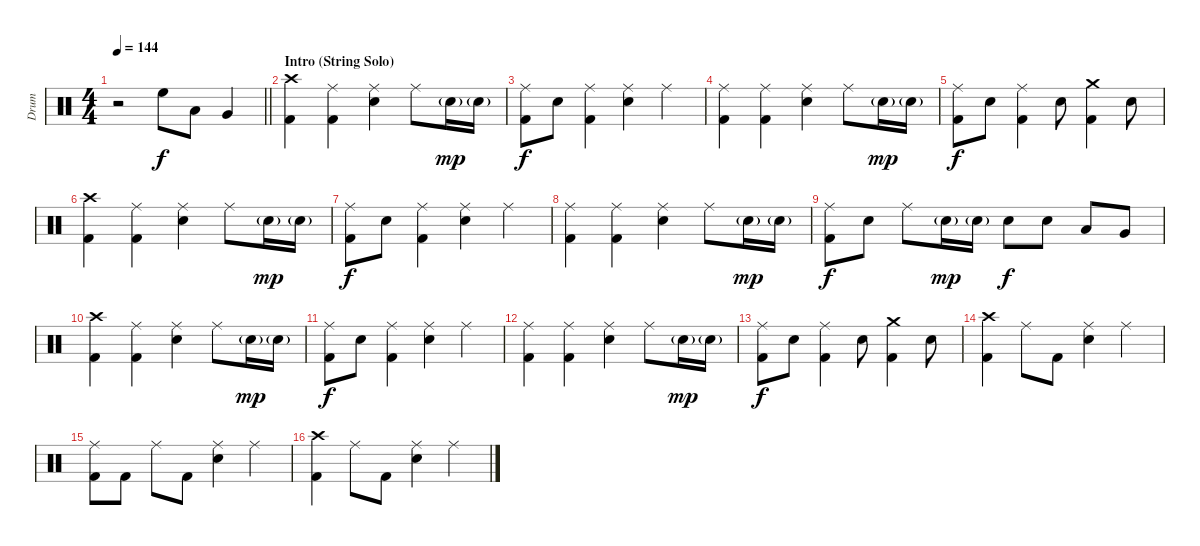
\track ("Drum" "Drum") {instrument percussion}
\staff {score}
\articulation defaults
\ts (4 4)
\tempo 144
\clef neutral
\barLineRight lightlight
\ks c
r.2{dy f} "High Floor Tom (hit)".8 "Low Tom (hit)".8 "Very Low Tom (hit)".4 |
\section ("" "Intro (String Solo)")
("Crash high (hit)" "Kick (hit) 2").4 ("Ride (middle)" "Kick (hit) 2").4 ("Ride (middle)" "Electric Snare (hit)").4 "Ride (middle)".8 "Electric Snare (hit)"{g}.16{dy mp} "Electric Snare (hit)"{g}.16 |
("Ride (middle)" "Kick (hit) 2").8{dy f} "Electric Snare (hit)".8 ("Ride (middle)" "Kick (hit) 2").4 ("Ride (middle)" "Electric Snare (hit)").4 "Ride (middle)".4 |
("Ride (middle)" "Kick (hit) 2").4 ("Ride (middle)" "Kick (hit) 2").4 ("Ride (middle)" "Electric Snare (hit)").4 "Ride (middle)".8 "Electric Snare (hit)"{g}.16{dy mp} "Electric Snare (hit)"{g}.16 |
("Ride (middle)" "Kick (hit) 2").8{dy f} "Electric Snare (hit)".8 ("Ride (middle)" "Kick (hit) 2").4 "Electric Snare (hit)".8 ("Crash medium (hit)" "Kick (hit) 2").4 "Electric Snare (hit)".8 |
("Crash high (hit)" "Kick (hit) 2").4 ("Ride (middle)" "Kick (hit) 2").4 ("Ride (middle)" "Electric Snare (hit)").4 "Ride (middle)".8 "Electric Snare (hit)"{g}.16{dy mp} "Electric Snare (hit)"{g}.16 |
("Ride (middle)" "Kick (hit) 2").8{dy f} "Electric Snare (hit)".8 ("Ride (middle)" "Kick (hit) 2").4 ("Ride (middle)" "Electric Snare (hit)").4 "Ride (middle)".4 |
("Ride (middle)" "Kick (hit) 2").4 ("Ride (middle)" "Kick (hit) 2").4 ("Ride (middle)" "Electric Snare (hit)").4 "Ride (middle)".8 "Electric Snare (hit)"{g}.16{dy mp} "Electric Snare (hit)"{g}.16 |
("Ride (middle)" "Kick (hit) 2").8{dy f} "Electric Snare (hit)".8 "Ride (middle)".8 "Electric Snare (hit)"{g}.16{dy mp} "Electric Snare (hit)"{g}.16 "Electric Snare (hit)".8{dy f} "Electric Snare (hit)".8 "Low Tom (hit)".8 "Very Low Tom (hit)".8 |
("Crash high (hit)" "Kick (hit) 2").4 ("Ride (middle)" "Kick (hit) 2").4 ("Ride (middle)" "Electric Snare (hit)").4 "Ride (middle)".8 "Electric Snare (hit)"{g}.16{dy mp} "Electric Snare (hit)"{g}.16 |
("Ride (middle)" "Kick (hit) 2").8{dy f} "Electric Snare (hit)".8 ("Ride (middle)" "Kick (hit) 2").4 ("Ride (middle)" "Electric Snare (hit)").4 "Ride (middle)".4 |
("Ride (middle)" "Kick (hit) 2").4 ("Ride (middle)" "Kick (hit) 2").4 ("Ride (middle)" "Electric Snare (hit)").4 "Ride (middle)".8 "Electric Snare (hit)"{g}.16{dy mp} "Electric Snare (hit)"{g}.16 |
("Ride (middle)" "Kick (hit) 2").8{dy f} "Electric Snare (hit)".8 ("Ride (middle)" "Kick (hit) 2").4 "Electric Snare (hit)".8 ("Crash medium (hit)" "Kick (hit) 2").4 "Electric Snare (hit)".8 |
("Crash high (hit)" "Kick (hit) 2").4 "Ride (middle)".8 "Kick (hit) 2".8 ("Ride (middle)" "Electric Snare (hit)").4 "Ride (middle)".4 |
("Ride (middle)" "Kick (hit) 2").8 "Kick (hit) 2".8 "Ride (middle)".8 "Kick (hit) 2".8 ("Ride (middle)" "Electric Snare (hit)").4 "Ride (middle)".4 |
("Crash high (hit)" "Kick (hit) 2").4 "Ride (middle)".8 "Kick (hit) 2".8 ("Ride (middle)" "Electric Snare (hit)").4 "Ride (middle)".4
